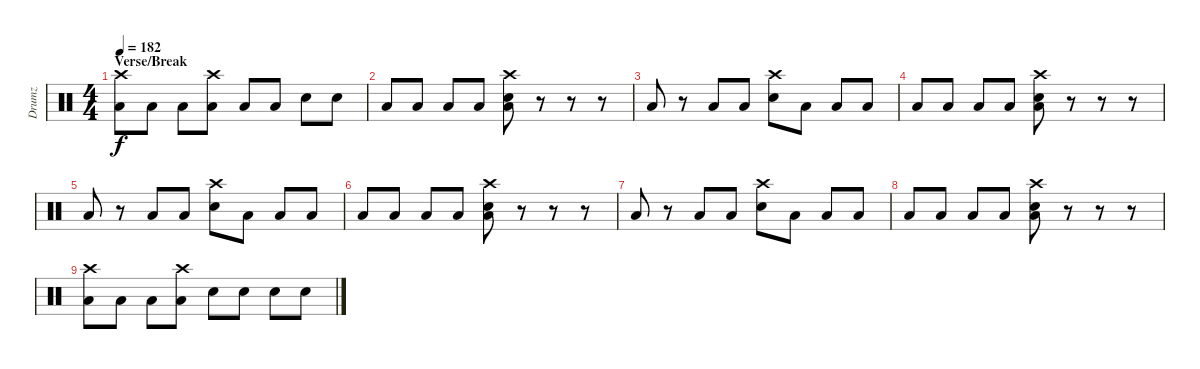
\track ("Drumz" "Drumz") {instrument percussion}
\staff {score}
\articulation defaults
\ts (4 4)
\section ("" "Verse/Break")
\tempo 182
\clef neutral
\ks c
("Low Floor Tom (hit)" "Crash high (hit)").8{dy f} "Low Floor Tom (hit)".8 "Low Floor Tom (hit)".8 ("Low Floor Tom (hit)" "Crash high (hit)").8 "Low Floor Tom (hit)".8 "Low Floor Tom (hit)".8 "Snare (hit) 2".8 "Snare (hit) 2".8 |
"Low Floor Tom (hit)".8 "Low Floor Tom (hit)".8 "Low Floor Tom (hit)".8 "Low Floor Tom (hit)".8 ("Snare (hit) 2" "Low Floor Tom (hit)" "Crash high (hit)").8 r.8 r.8 r.8 |
"Low Floor Tom (hit)".8 r.8 "Low Floor Tom (hit)".8 "Low Floor Tom (hit)".8 ("Crash high (hit)" "Snare (hit) 2").8 "Low Floor Tom (hit)".8 "Low Floor Tom (hit)".8 "Low Floor Tom (hit)".8 |
"Low Floor Tom (hit)".8 "Low Floor Tom (hit)".8 "Low Floor Tom (hit)".8 "Low Floor Tom (hit)".8 ("Snare (hit) 2" "Low Floor Tom (hit)" "Crash high (hit)").8 r.8 r.8 r.8 |
"Low Floor Tom (hit)".8 r.8 "Low Floor Tom (hit)".8 "Low Floor Tom (hit)".8 ("Crash high (hit)" "Snare (hit) 2").8 "Low Floor Tom (hit)".8 "Low Floor Tom (hit)".8 "Low Floor Tom (hit)".8 |
"Low Floor Tom (hit)".8 "Low Floor Tom (hit)".8 "Low Floor Tom (hit)".8 "Low Floor Tom (hit)".8 ("Snare (hit) 2" "Low Floor Tom (hit)" "Crash high (hit)").8 r.8 r.8 r.8 |
"Low Floor Tom (hit)".8 r.8 "Low Floor Tom (hit)".8 "Low Floor Tom (hit)".8 ("Crash high (hit)" "Snare (hit) 2").8 "Low Floor Tom (hit)".8 "Low Floor Tom (hit)".8 "Low Floor Tom (hit)".8 |
"Low Floor Tom (hit)".8 "Low Floor Tom (hit)".8 "Low Floor Tom (hit)".8 "Low Floor Tom (hit)".8 ("Snare (hit) 2" "Low Floor Tom (hit)" "Crash high (hit)").8 r.8 r.8 r.8 |
("Low Floor Tom (hit)" "Crash high (hit)").8 "Low Floor Tom (hit)".8 "Low Floor Tom (hit)".8 ("Low Floor Tom (hit)" "Crash high (hit)").8 "Snare (hit) 2".8 "Snare (hit) 2".8 "Snare (hit) 2".8 "Snare (hit) 2".8
